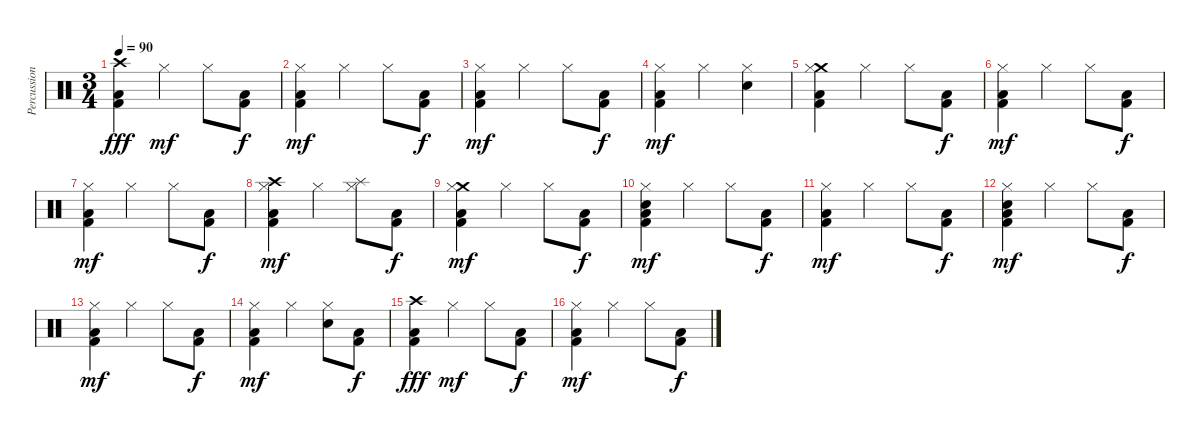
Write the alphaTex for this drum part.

\track ("Percussion" "Percussion") {instrument percussion}
\staff {score}
\articulation defaults
\ts (3 4)
\tempo 90
\clef neutral
\ks c
("Crash high (hit)" "Low Floor Tom (hit)" "Kick (hit) 2").4{dy fff} "Hi-Hat (closed)".4{dy mf} "Hi-Hat (closed)".8 ("Low Floor Tom (hit)" "Kick (hit) 2").8{dy f} |
("Hi-Hat (closed)" "Low Floor Tom (hit)" "Kick (hit) 2").4{dy mf} "Hi-Hat (closed)".4 "Hi-Hat (closed)".8 ("Low Floor Tom (hit)" "Kick (hit) 2").8{dy f} |
("Hi-Hat (closed)" "Low Floor Tom (hit)" "Kick (hit) 2").4{dy mf} "Hi-Hat (closed)".4 "Hi-Hat (closed)".8 ("Low Floor Tom (hit)" "Kick (hit) 2").8{dy f} |
("Hi-Hat (closed)" "Low Floor Tom (hit)" "Kick (hit) 2").4{dy mf} "Hi-Hat (closed)".4 ("Electric Snare (hit)" "Hi-Hat (closed)").4 |
("Crash medium (hit)" "Hi-Hat (closed)" "Low Floor Tom (hit)" "Kick (hit) 2").4 "Hi-Hat (closed)".4 "Hi-Hat (closed)".8 ("Low Floor Tom (hit)" "Kick (hit) 2").8{dy f} |
("Hi-Hat (closed)" "Low Floor Tom (hit)" "Kick (hit) 2").4{dy mf} "Hi-Hat (closed)".4 "Hi-Hat (closed)".8 ("Low Floor Tom (hit)" "Kick (hit) 2").8{dy f} |
("Hi-Hat (closed)" "Low Floor Tom (hit)" "Kick (hit) 2").4{dy mf} "Hi-Hat (closed)".4 "Hi-Hat (closed)".8 ("Low Floor Tom (hit)" "Kick (hit) 2").8{dy f} |
("Crash high (hit)" "Hi-Hat (closed)" "Low Floor Tom (hit)" "Kick (hit) 2").4{dy mf} "Hi-Hat (closed)".4 ("Splash (hit)" "Hi-Hat (closed)").8 ("Low Floor Tom (hit)" "Kick (hit) 2").8{dy f} |
("Crash medium (hit)" "Hi-Hat (closed)" "Low Floor Tom (hit)" "Kick (hit) 2").4{dy mf} "Hi-Hat (closed)".4 "Hi-Hat (closed)".8 ("Low Floor Tom (hit)" "Kick (hit) 2").8{dy f} |
("Electric Snare (hit)" "Hi-Hat (closed)" "Low Floor Tom (hit)" "Kick (hit) 2").4{dy mf} "Hi-Hat (closed)".4 "Hi-Hat (closed)".8 ("Low Floor Tom (hit)" "Kick (hit) 2").8{dy f} |
("Hi-Hat (closed)" "Low Floor Tom (hit)" "Kick (hit) 2").4{dy mf} "Hi-Hat (closed)".4 "Hi-Hat (closed)".8 ("Low Floor Tom (hit)" "Kick (hit) 2").8{dy f} |
("Electric Snare (hit)" "Hi-Hat (closed)" "Low Floor Tom (hit)" "Kick (hit) 2").4{dy mf} "Hi-Hat (closed)".4 "Hi-Hat (closed)".8 ("Low Floor Tom (hit)" "Kick (hit) 2").8{dy f} |
("Hi-Hat (closed)" "Low Floor Tom (hit)" "Kick (hit) 2").4{dy mf} "Hi-Hat (closed)".4 "Hi-Hat (closed)".8 ("Low Floor Tom (hit)" "Kick (hit) 2").8{dy f} |
("Hi-Hat (closed)" "Low Floor Tom (hit)" "Kick (hit) 2").4{dy mf} "Hi-Hat (closed)".4 ("Electric Snare (hit)" "Hi-Hat (closed)").8 ("Low Floor Tom (hit)" "Kick (hit) 2").8{dy f} |
("Crash high (hit)" "Low Floor Tom (hit)" "Kick (hit) 2").4{dy fff} "Hi-Hat (closed)".4{dy mf} "Hi-Hat (closed)".8 ("Low Floor Tom (hit)" "Kick (hit) 2").8{dy f} |
("Hi-Hat (closed)" "Low Floor Tom (hit)" "Kick (hit) 2").4{dy mf} "Hi-Hat (closed)".4 "Hi-Hat (closed)".8 ("Low Floor Tom (hit)" "Kick (hit) 2").8{dy f}
